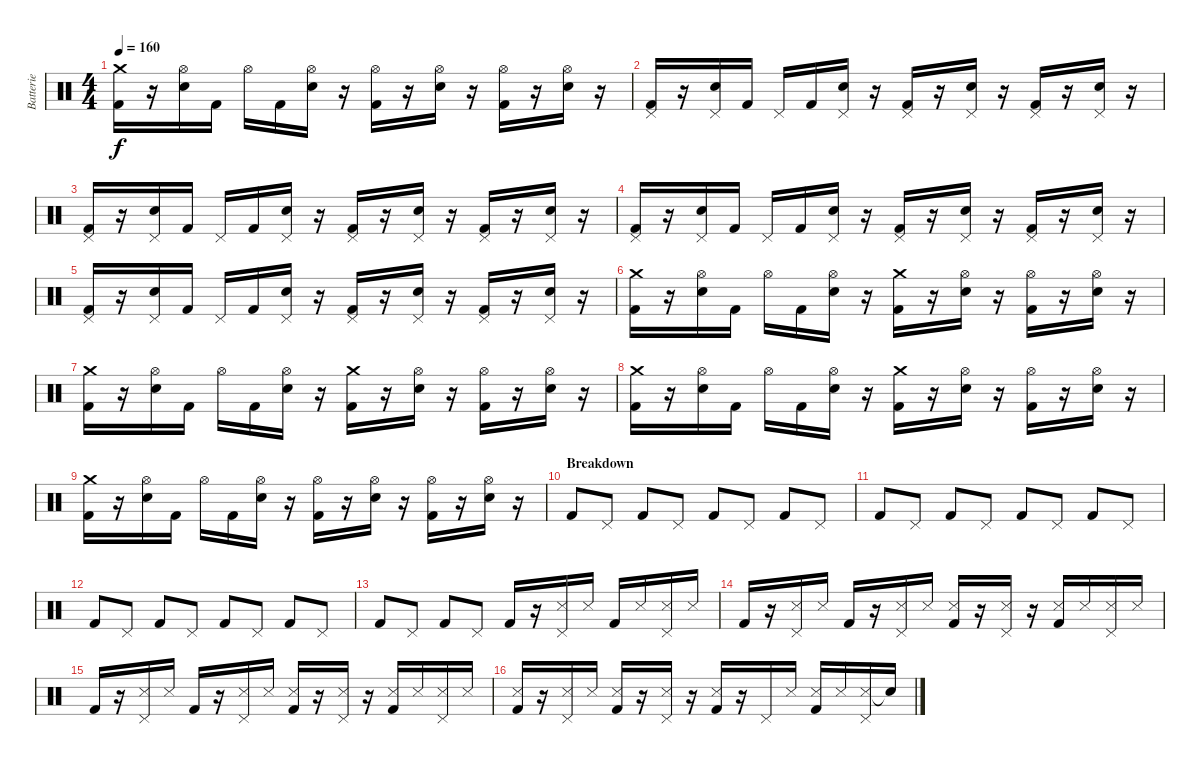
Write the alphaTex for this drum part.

\track ("Batterie" "Batterie") {instrument percussion}
\staff {score}
\articulation defaults
\ts (4 4)
\tempo 160
\clef neutral
\ks c
("Crash medium (hit)" "Kick (hit) 2").16{dy f} r.16 ("Hi-Hat (open)" "Electric Snare (hit)").16 "Kick (hit) 2".16 "Hi-Hat (open)".16 "Kick (hit) 2".16 ("Hi-Hat (open)" "Electric Snare (hit)").16 r.16 ("Hi-Hat (open)" "Kick (hit) 2").16 r.16 ("Hi-Hat (open)" "Electric Snare (hit)").16 r.16 ("Hi-Hat (open)" "Kick (hit) 2").16 r.16 ("Hi-Hat (open)" "Electric Snare (hit)").16 r.16 |
("Pedal Hi-Hat (hit)" "Kick (hit) 2").16 r.16 ("Pedal Hi-Hat (hit)" "Electric Snare (hit)").16 "Kick (hit) 2".16 "Pedal Hi-Hat (hit)".16 "Kick (hit) 2".16 ("Pedal Hi-Hat (hit)" "Electric Snare (hit)").16 r.16 ("Pedal Hi-Hat (hit)" "Kick (hit) 2").16 r.16 ("Pedal Hi-Hat (hit)" "Electric Snare (hit)").16 r.16 ("Pedal Hi-Hat (hit)" "Kick (hit) 2").16 r.16 ("Pedal Hi-Hat (hit)" "Electric Snare (hit)").16 r.16 |
("Pedal Hi-Hat (hit)" "Kick (hit) 2").16 r.16 ("Pedal Hi-Hat (hit)" "Electric Snare (hit)").16 "Kick (hit) 2".16 "Pedal Hi-Hat (hit)".16 "Kick (hit) 2".16 ("Pedal Hi-Hat (hit)" "Electric Snare (hit)").16 r.16 ("Pedal Hi-Hat (hit)" "Kick (hit) 2").16 r.16 ("Pedal Hi-Hat (hit)" "Electric Snare (hit)").16 r.16 ("Pedal Hi-Hat (hit)" "Kick (hit) 2").16 r.16 ("Pedal Hi-Hat (hit)" "Electric Snare (hit)").16 r.16 |
("Pedal Hi-Hat (hit)" "Kick (hit) 2").16 r.16 ("Pedal Hi-Hat (hit)" "Electric Snare (hit)").16 "Kick (hit) 2".16 "Pedal Hi-Hat (hit)".16 "Kick (hit) 2".16 ("Pedal Hi-Hat (hit)" "Electric Snare (hit)").16 r.16 ("Pedal Hi-Hat (hit)" "Kick (hit) 2").16 r.16 ("Pedal Hi-Hat (hit)" "Electric Snare (hit)").16 r.16 ("Pedal Hi-Hat (hit)" "Kick (hit) 2").16 r.16 ("Pedal Hi-Hat (hit)" "Electric Snare (hit)").16 r.16 |
("Pedal Hi-Hat (hit)" "Kick (hit) 2").16 r.16 ("Pedal Hi-Hat (hit)" "Electric Snare (hit)").16 "Kick (hit) 2".16 "Pedal Hi-Hat (hit)".16 "Kick (hit) 2".16 ("Pedal Hi-Hat (hit)" "Electric Snare (hit)").16 r.16 ("Pedal Hi-Hat (hit)" "Kick (hit) 2").16 r.16 ("Pedal Hi-Hat (hit)" "Electric Snare (hit)").16 r.16 ("Pedal Hi-Hat (hit)" "Kick (hit) 2").16 r.16 ("Pedal Hi-Hat (hit)" "Electric Snare (hit)").16 r.16 |
("Crash medium (hit)" "Kick (hit) 2").16 r.16 ("Hi-Hat (open)" "Electric Snare (hit)").16 "Kick (hit) 2".16 "Hi-Hat (open)".16 "Kick (hit) 2".16 ("Hi-Hat (open)" "Electric Snare (hit)").16 r.16 ("Crash medium (hit)" "Kick (hit) 2").16 r.16 ("Hi-Hat (open)" "Electric Snare (hit)").16 r.16 ("Hi-Hat (open)" "Kick (hit) 2").16 r.16 ("Hi-Hat (open)" "Electric Snare (hit)").16 r.16 |
("Crash medium (hit)" "Kick (hit) 2").16 r.16 ("Hi-Hat (open)" "Electric Snare (hit)").16 "Kick (hit) 2".16 "Hi-Hat (open)".16 "Kick (hit) 2".16 ("Hi-Hat (open)" "Electric Snare (hit)").16 r.16 ("Crash medium (hit)" "Kick (hit) 2").16 r.16 ("Hi-Hat (open)" "Electric Snare (hit)").16 r.16 ("Hi-Hat (open)" "Kick (hit) 2").16 r.16 ("Hi-Hat (open)" "Electric Snare (hit)").16 r.16 |
("Crash medium (hit)" "Kick (hit) 2").16 r.16 ("Hi-Hat (open)" "Electric Snare (hit)").16 "Kick (hit) 2".16 "Hi-Hat (open)".16 "Kick (hit) 2".16 ("Hi-Hat (open)" "Electric Snare (hit)").16 r.16 ("Crash medium (hit)" "Kick (hit) 2").16 r.16 ("Hi-Hat (open)" "Electric Snare (hit)").16 r.16 ("Hi-Hat (open)" "Kick (hit) 2").16 r.16 ("Hi-Hat (open)" "Electric Snare (hit)").16 r.16 |
("Crash medium (hit)" "Kick (hit) 2").16 r.16 ("Hi-Hat (open)" "Electric Snare (hit)").16 "Kick (hit) 2".16 "Hi-Hat (open)".16 "Kick (hit) 2".16 ("Hi-Hat (open)" "Electric Snare (hit)").16 r.16 ("Hi-Hat (open)" "Kick (hit) 2").16 r.16 ("Hi-Hat (open)" "Electric Snare (hit)").16 r.16 ("Hi-Hat (open)" "Kick (hit) 2").16 r.16 ("Hi-Hat (open)" "Electric Snare (hit)").16 r.16 |
\section ("" "Breakdown")
"Kick (hit) 2".8 "Pedal Hi-Hat (hit)".8 "Kick (hit) 2".8 "Pedal Hi-Hat (hit)".8 "Kick (hit) 2".8 "Pedal Hi-Hat (hit)".8 "Kick (hit) 2".8 "Pedal Hi-Hat (hit)".8 |
"Kick (hit) 2".8 "Pedal Hi-Hat (hit)".8 "Kick (hit) 2".8 "Pedal Hi-Hat (hit)".8 "Kick (hit) 2".8 "Pedal Hi-Hat (hit)".8 "Kick (hit) 2".8 "Pedal Hi-Hat (hit)".8 |
"Kick (hit) 2".8 "Pedal Hi-Hat (hit)".8 "Kick (hit) 2".8 "Pedal Hi-Hat (hit)".8 "Kick (hit) 2".8 "Pedal Hi-Hat (hit)".8 "Kick (hit) 2".8 "Pedal Hi-Hat (hit)".8 |
"Kick (hit) 2".8 "Pedal Hi-Hat (hit)".8 "Kick (hit) 2".8 "Pedal Hi-Hat (hit)".8 "Kick (hit) 2".16 r.16 ("Snare (side stick) 3" "Pedal Hi-Hat (hit)").16 "Snare (side stick) 3".16 "Kick (hit) 2".16 "Snare (side stick) 3".16 ("Snare (side stick) 3" "Pedal Hi-Hat (hit)").16 "Snare (side stick) 3".16 |
"Kick (hit) 2".16 r.16 ("Snare (side stick) 3" "Pedal Hi-Hat (hit)").16 "Snare (side stick) 3".16 "Kick (hit) 2".16 r.16 ("Snare (side stick) 3" "Pedal Hi-Hat (hit)").16 "Snare (side stick) 3".16 ("Snare (side stick) 3" "Kick (hit) 2").16 r.16 ("Snare (side stick) 3" "Pedal Hi-Hat (hit)").16 r.16 ("Snare (side stick) 3" "Kick (hit) 2").16 "Snare (side stick) 3".16 ("Snare (side stick) 3" "Pedal Hi-Hat (hit)").16 "Snare (side stick) 3".16 |
"Kick (hit) 2".16 r.16 ("Snare (side stick) 3" "Pedal Hi-Hat (hit)").16 "Snare (side stick) 3".16 "Kick (hit) 2".16 r.16 ("Snare (side stick) 3" "Pedal Hi-Hat (hit)").16 "Snare (side stick) 3".16 ("Snare (side stick) 3" "Kick (hit) 2").16 r.16 ("Snare (side stick) 3" "Pedal Hi-Hat (hit)").16 r.16 ("Snare (side stick) 3" "Kick (hit) 2").16 "Snare (side stick) 3".16 ("Snare (side stick) 3" "Pedal Hi-Hat (hit)").16 "Snare (side stick) 3".16 |
("Snare (side stick) 3" "Kick (hit) 2").16 r.16 ("Snare (side stick) 3" "Pedal Hi-Hat (hit)").16 "Snare (side stick) 3".16 ("Snare (side stick) 3" "Kick (hit) 2").16 r.16 ("Snare (side stick) 3" "Pedal Hi-Hat (hit)").16 r.16 ("Snare (side stick) 3" "Kick (hit) 2").16 r.16 "Pedal Hi-Hat (hit)".16 "Snare (side stick) 3".16 ("Snare (side stick) 3" "Kick (hit) 2").16 "Snare (side stick) 3".16 ("Snare (side stick) 3" "Pedal Hi-Hat (hit)").16 "Snare (hit)"{t}.16
